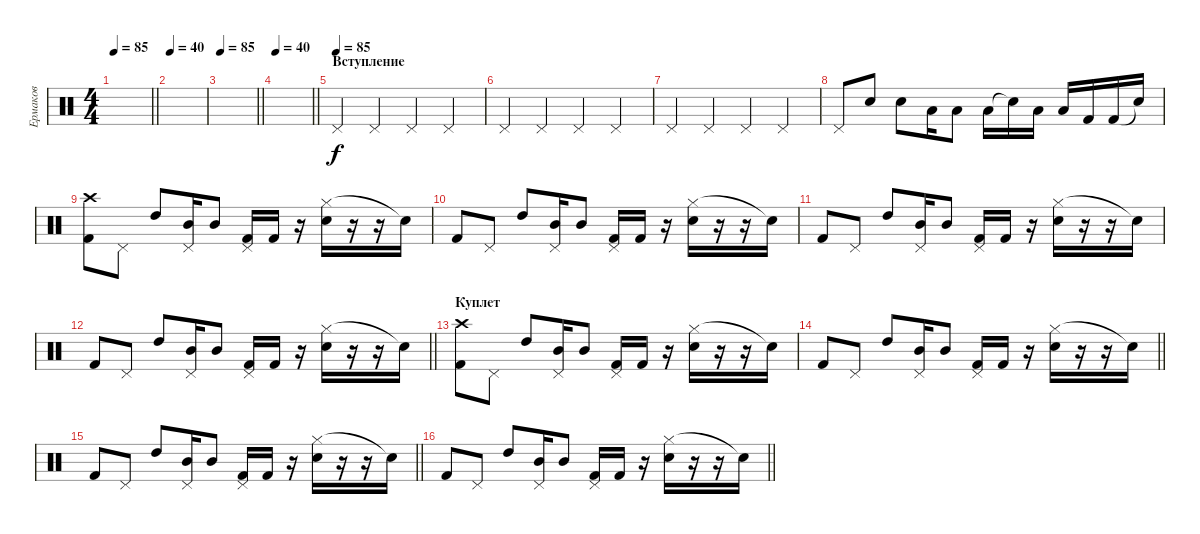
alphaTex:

\track ("Ермаков" "Ермаков") {instrument percussion}
\staff {score}
\articulation defaults
\ts (4 4)
\tempo 85
\clef neutral
\barLineRight lightlight
\ks c
|
\tempo 40
|
\tempo 85
\barLineRight lightlight
|
\tempo 40
\barLineRight lightlight
|
\section ("" "Вступление")
\tempo (85)
"Pedal Hi-Hat (hit)".4 "Pedal Hi-Hat (hit)".4 "Pedal Hi-Hat (hit)".4 "Pedal Hi-Hat (hit)".4 |
"Pedal Hi-Hat (hit)".4 "Pedal Hi-Hat (hit)".4 "Pedal Hi-Hat (hit)".4 "Pedal Hi-Hat (hit)".4 |
"Pedal Hi-Hat (hit)".4 "Pedal Hi-Hat (hit)".4 "Pedal Hi-Hat (hit)".4 "Pedal Hi-Hat (hit)".4 |
"Pedal Hi-Hat (hit)".8 "Electric Snare (hit)".8 "Electric Snare (hit)".8 "Low Tom (hit)".16 "Low Tom (hit)".8 "Low Tom (hit)".16 "Snare (hit)"{t}.16 "Low Tom (hit)".16 "Low Tom (hit)".16 "Kick (hit) 2".16 "Kick (hit) 2".16 "Snare (hit)"{t}.16 |
("Crash high (hit)" "Kick (hit) 2").8 "Pedal Hi-Hat (hit)".8 "High Tom (hit)".8 ("Pedal Hi-Hat (hit)" "Mid Tom (hit)").16 "Mid Tom (hit)".8 ("Pedal Hi-Hat (hit)" "Kick (hit) 2").16 "Kick (hit) 2".16 r.16 ("Hi-Hat (closed)" "Snare (hit) 2").16 r.16 r.16 "Snare (hit)"{t}.16 |
"Kick (hit) 2".8 "Pedal Hi-Hat (hit)".8 "High Tom (hit)".8 ("Pedal Hi-Hat (hit)" "Mid Tom (hit)").16 "Mid Tom (hit)".8 ("Pedal Hi-Hat (hit)" "Kick (hit) 2").16 "Kick (hit) 2".16 r.16 ("Hi-Hat (closed)" "Snare (hit) 2").16 r.16 r.16 "Snare (hit)"{t}.16 |
"Kick (hit) 2".8 "Pedal Hi-Hat (hit)".8 "High Tom (hit)".8 ("Pedal Hi-Hat (hit)" "Mid Tom (hit)").16 "Mid Tom (hit)".8 ("Pedal Hi-Hat (hit)" "Kick (hit) 2").16 "Kick (hit) 2".16 r.16 ("Hi-Hat (closed)" "Snare (hit) 2").16 r.16 r.16 "Snare (hit)"{t}.16 |
\barLineRight lightlight "Kick (hit) 2".8 "Pedal Hi-Hat (hit)".8 "High Tom (hit)".8
("Pedal Hi-Hat (hit)" "Mid Tom (hit)").16 "Mid Tom (hit)".8 ("Pedal Hi-Hat (hit)" "Kick (hit) 2").16 "Kick (hit) 2".16 r.16 ("Hi-Hat (closed)" "Snare (hit) 2").16 r.16 r.16 "Snare (hit)"{t}.16 |
\section ("" "Куплет")
("Crash high (hit)" "Kick (hit) 2").8 "Pedal Hi-Hat (hit)".8 "High Tom (hit)".8 ("Pedal Hi-Hat (hit)" "Mid Tom (hit)").16 "Mid Tom (hit)".8 ("Pedal Hi-Hat (hit)" "Kick (hit) 2").16 "Kick (hit) 2".16 r.16 ("Hi-Hat (closed)" "Snare (hit) 2").16 r.16 r.16 "Snare (hit)"{t}.16 |
\barLineRight lightlight "Kick (hit) 2".8 "Pedal Hi-Hat (hit)".8 "High Tom (hit)".8
("Pedal Hi-Hat (hit)" "Mid Tom (hit)").16 "Mid Tom (hit)".8 ("Pedal Hi-Hat (hit)" "Kick (hit) 2").16 "Kick (hit) 2".16 r.16 ("Hi-Hat (closed)" "Snare (hit) 2").16 r.16 r.16 "Snare (hit)"{t}.16 |
\barLineRight lightlight "Kick (hit) 2".8 "Pedal Hi-Hat (hit)".8 "High Tom (hit)".8
("Pedal Hi-Hat (hit)" "Mid Tom (hit)").16 "Mid Tom (hit)".8 ("Pedal Hi-Hat (hit)" "Kick (hit) 2").16 "Kick (hit) 2".16 r.16 ("Hi-Hat (closed)" "Snare (hit) 2").16 r.16 r.16 "Snare (hit)"{t}.16 |
\barLineRight lightlight "Kick (hit) 2".8 "Pedal Hi-Hat (hit)".8 "High Tom (hit)".8
("Pedal Hi-Hat (hit)" "Mid Tom (hit)").16 "Mid Tom (hit)".8 ("Pedal Hi-Hat (hit)" "Kick (hit) 2").16 "Kick (hit) 2".16 r.16 ("Hi-Hat (closed)" "Snare (hit) 2").16 r.16 r.16 "Snare (hit)"{t}.16
